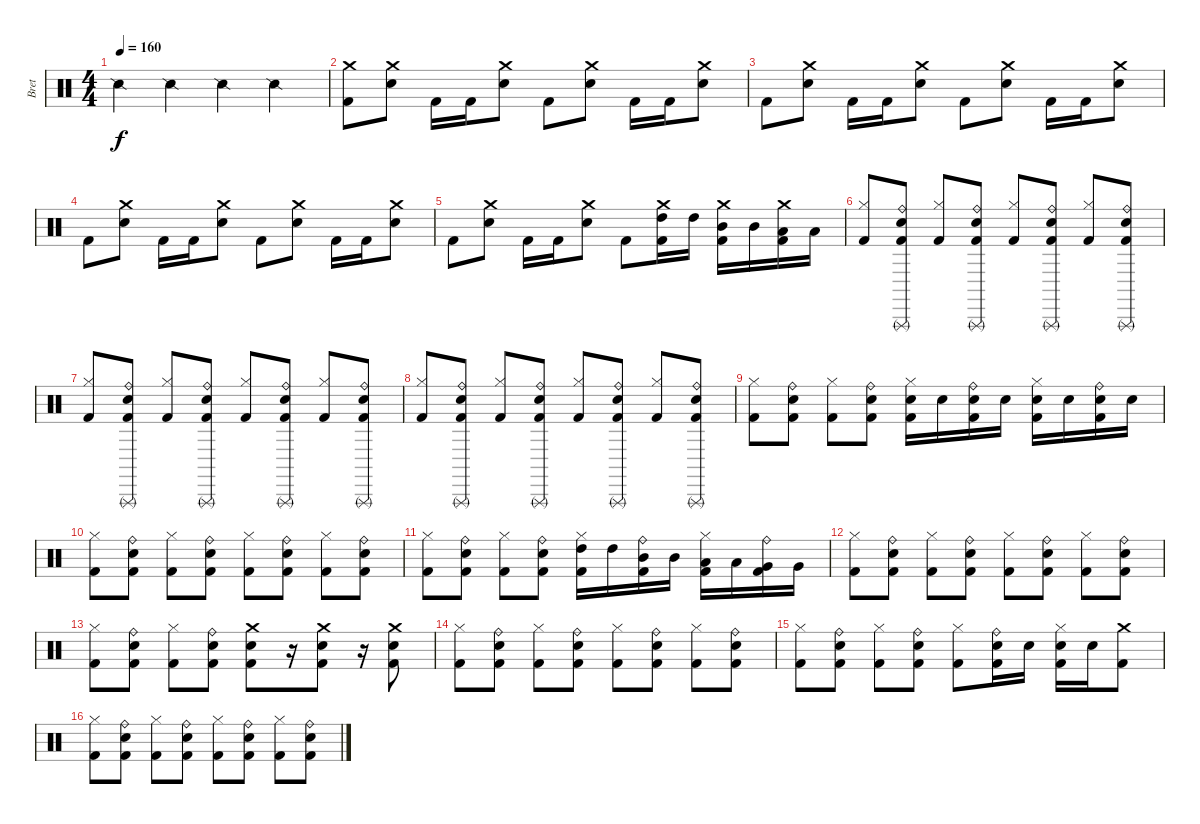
\track ("Bret" "Bret") {instrument percussion}
\staff {score}
\articulation defaults
\ts (4 4)
\tempo 160
\clef neutral
\ks c "Snare (side stick) 2".4{dy f} "Snare (side stick) 2".4 "Snare (side stick) 2".4 "Snare (side stick) 2".4
|
("Crash medium (hit)" "Kick (hit) 2").8 ("Crash medium (hit)" "Electric Snare (hit)").8 "Kick (hit) 2".16 "Kick (hit) 2".16 ("Crash medium (hit)" "Electric Snare (hit)").8 "Kick (hit) 2".8 ("Crash medium (hit)" "Electric Snare (hit)").8 "Kick (hit) 2".16 "Kick (hit) 2".16 ("Crash medium (hit)" "Electric Snare (hit)").8 |
"Kick (hit) 2".8 ("Crash medium (hit)" "Electric Snare (hit)").8 "Kick (hit) 2".16 "Kick (hit) 2".16 ("Crash medium (hit)" "Electric Snare (hit)").8 "Kick (hit) 2".8 ("Crash medium (hit)" "Electric Snare (hit)").8 "Kick (hit) 2".16 "Kick (hit) 2".16 ("Crash medium (hit)" "Electric Snare (hit)").8 |
"Kick (hit) 2".8 ("Crash medium (hit)" "Electric Snare (hit)").8 "Kick (hit) 2".16 "Kick (hit) 2".16 ("Crash medium (hit)" "Electric Snare (hit)").8 "Kick (hit) 2".8 ("Crash medium (hit)" "Electric Snare (hit)").8 "Kick (hit) 2".16 "Kick (hit) 2".16 ("Crash medium (hit)" "Electric Snare (hit)").8 |
"Kick (hit) 2".8 ("Crash medium (hit)" "Electric Snare (hit)").8 "Kick (hit) 2".16 "Kick (hit) 2".16 ("Crash medium (hit)" "Electric Snare (hit)").8 "Kick (hit) 2".8 ("Crash medium (hit)" "High Tom (hit)" "Kick (hit) 2").16 "High Tom (hit)".16 ("Crash medium (hit)" "Mid Tom (hit)" "Kick (hit) 2").16 "Mid Tom (hit)".16 ("Crash medium (hit)" "Low Tom (hit)" "Kick (hit) 2").16 "Low Tom (hit)".16 |
("Hi-Hat (closed)" "Kick (hit) 2").8 ("Ride (bell)" "Triangle (rnute)" "Electric Snare (hit)" "Kick (hit) 2").8 ("Hi-Hat (closed)" "Kick (hit) 2").8 ("Ride (bell)" "Triangle (rnute)" "Electric Snare (hit)" "Kick (hit) 2").8 ("Hi-Hat (closed)" "Kick (hit) 2").8 ("Ride (bell)" "Triangle (rnute)" "Electric Snare (hit)" "Kick (hit) 2").8 ("Hi-Hat (closed)" "Kick (hit) 2").8 ("Ride (bell)" "Triangle (rnute)" "Electric Snare (hit)" "Kick (hit) 2").8 |
("Hi-Hat (closed)" "Kick (hit) 2").8 ("Ride (bell)" "Triangle (rnute)" "Electric Snare (hit)" "Kick (hit) 2").8 ("Hi-Hat (closed)" "Kick (hit) 2").8 ("Ride (bell)" "Triangle (rnute)" "Electric Snare (hit)" "Kick (hit) 2").8 ("Hi-Hat (closed)" "Kick (hit) 2").8 ("Ride (bell)" "Triangle (rnute)" "Electric Snare (hit)" "Kick (hit) 2").8 ("Hi-Hat (closed)" "Kick (hit) 2").8 ("Ride (bell)" "Triangle (rnute)" "Electric Snare (hit)" "Kick (hit) 2").8 |
("Hi-Hat (closed)" "Kick (hit) 2").8 ("Ride (bell)" "Triangle (rnute)" "Electric Snare (hit)" "Kick (hit) 2").8 ("Hi-Hat (closed)" "Kick (hit) 2").8 ("Ride (bell)" "Triangle (rnute)" "Electric Snare (hit)" "Kick (hit) 2").8 ("Hi-Hat (closed)" "Kick (hit) 2").8 ("Ride (bell)" "Triangle (rnute)" "Electric Snare (hit)" "Kick (hit) 2").8 ("Hi-Hat (closed)" "Kick (hit) 2").8 ("Ride (bell)" "Triangle (rnute)" "Electric Snare (hit)" "Kick (hit) 2").8 |
("Hi-Hat (closed)" "Kick (hit) 2").8 ("Ride (bell)" "Electric Snare (hit)" "Kick (hit) 2").8 ("Hi-Hat (closed)" "Kick (hit) 2").8 ("Ride (bell)" "Electric Snare (hit)" "Kick (hit) 2").8 ("Hi-Hat (closed)" "Electric Snare (hit)" "Kick (hit) 2").16 "Electric Snare (hit)".16 ("Ride (bell)" "Electric Snare (hit)" "Kick (hit) 2").16 "Electric Snare (hit)".16 ("Hi-Hat (closed)" "Electric Snare (hit)" "Kick (hit) 2").16 "Electric Snare (hit)".16 ("Ride (bell)" "Electric Snare (hit)" "Kick (hit) 2").16 "Electric Snare (hit)".16 |
("Hi-Hat (closed)" "Kick (hit) 2").8 ("Ride (bell)" "Electric Snare (hit)" "Kick (hit) 2").8 ("Hi-Hat (closed)" "Kick (hit) 2").8 ("Ride (bell)" "Electric Snare (hit)" "Kick (hit) 2").8 ("Hi-Hat (closed)" "Kick (hit) 2").8 ("Ride (bell)" "Electric Snare (hit)" "Kick (hit) 2").8 ("Hi-Hat (closed)" "Kick (hit) 2").8 ("Ride (bell)" "Electric Snare (hit)" "Kick (hit) 2").8 |
("Hi-Hat (closed)" "Kick (hit) 2").8 ("Ride (bell)" "Electric Snare (hit)" "Kick (hit) 2").8 ("Hi-Hat (closed)" "Kick (hit) 2").8 ("Ride (bell)" "Electric Snare (hit)" "Kick (hit) 2").8 ("Hi-Hat (closed)" "High Tom (hit)" "Kick (hit) 2").16 "High Tom (hit)".16 ("Ride (bell)" "Mid Tom (hit)" "Kick (hit) 2").16 "Mid Tom (hit)".16 ("Hi-Hat (closed)" "Low Tom (hit)" "Kick (hit) 2").16 "Low Tom (hit)".16 ("Ride (bell)" "Very Low Tom (hit)" "Kick (hit) 2").16 "Very Low Tom (hit)".16 |
("Hi-Hat (closed)" "Kick (hit) 2").8 ("Ride (bell)" "Electric Snare (hit)" "Kick (hit) 2").8 ("Hi-Hat (closed)" "Kick (hit) 2").8 ("Ride (bell)" "Electric Snare (hit)" "Kick (hit) 2").8 ("Hi-Hat (closed)" "Kick (hit) 2").8 ("Ride (bell)" "Electric Snare (hit)" "Kick (hit) 2").8 ("Hi-Hat (closed)" "Kick (hit) 2").8 ("Ride (bell)" "Electric Snare (hit)" "Kick (hit) 2").8 |
("Hi-Hat (closed)" "Kick (hit) 2").8 ("Ride (bell)" "Electric Snare (hit)" "Kick (hit) 2").8 ("Hi-Hat (closed)" "Kick (hit) 2").8 ("Ride (bell)" "Electric Snare (hit)" "Kick (hit) 2").8 ("Crash medium (hit)" "Electric Snare (hit)" "Kick (hit) 2").8 r.16 ("Crash medium (hit)" "Electric Snare (hit)" "Kick (hit) 2").8 r.16 ("Crash medium (hit)" "Electric Snare (hit)" "Kick (hit) 2").8 |
("Hi-Hat (closed)" "Kick (hit) 2").8 ("Ride (bell)" "Electric Snare (hit)" "Kick (hit) 2").8 ("Hi-Hat (closed)" "Kick (hit) 2").8 ("Ride (bell)" "Electric Snare (hit)" "Kick (hit) 2").8 ("Hi-Hat (closed)" "Kick (hit) 2").8 ("Ride (bell)" "Electric Snare (hit)" "Kick (hit) 2").8 ("Hi-Hat (closed)" "Kick (hit) 2").8 ("Ride (bell)" "Electric Snare (hit)" "Kick (hit) 2").8 |
("Hi-Hat (closed)" "Kick (hit) 2").8 ("Ride (bell)" "Electric Snare (hit)" "Kick (hit) 2").8 ("Hi-Hat (closed)" "Kick (hit) 2").8 ("Ride (bell)" "Electric Snare (hit)" "Kick (hit) 2").8 ("Hi-Hat (closed)" "Kick (hit) 2").8 ("Ride (bell)" "Electric Snare (hit)" "Kick (hit) 2").16 "Electric Snare (hit)".16 ("Hi-Hat (closed)" "Electric Snare (hit)" "Kick (hit) 2").16 "Electric Snare (hit)".16 ("Crash medium (hit)" "Kick (hit) 2").8 |
("Hi-Hat (closed)" "Kick (hit) 2").8 ("Ride (bell)" "Electric Snare (hit)" "Kick (hit) 2").8 ("Hi-Hat (closed)" "Kick (hit) 2").8 ("Ride (bell)" "Electric Snare (hit)" "Kick (hit) 2").8 ("Hi-Hat (closed)" "Kick (hit) 2").8 ("Ride (bell)" "Electric Snare (hit)" "Kick (hit) 2").8 ("Hi-Hat (closed)" "Kick (hit) 2").8 ("Ride (bell)" "Electric Snare (hit)" "Kick (hit) 2").8
